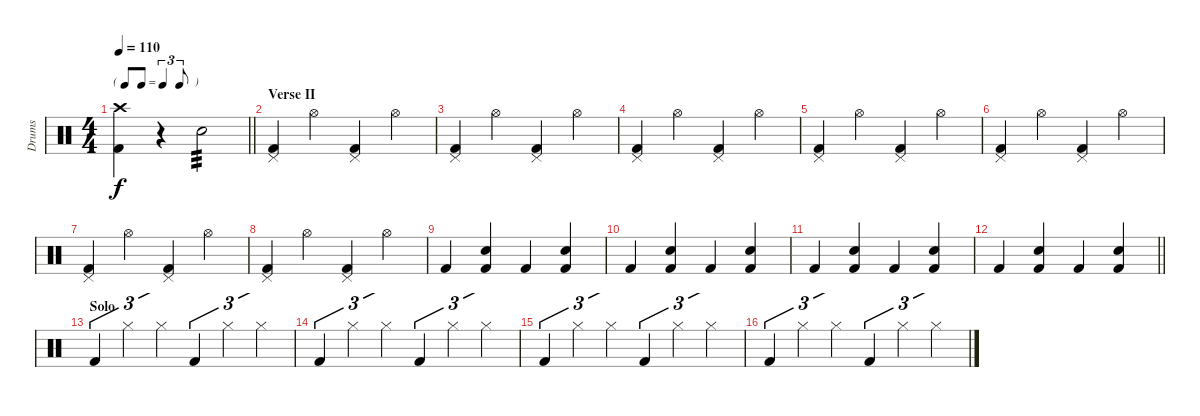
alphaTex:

\track ("Drums" "Drums") {instrument percussion}
\staff {score}
\articulation defaults
\ts (4 4)
\tf triplet8th
\tempo 110
\clef neutral
\barLineRight lightlight
\ks c
("Crash high (hit)" "Kick (hit) 2").4{dy f} r.4 "Snare (hit) 2".2{tp 3} |
\section ("" "Verse II")
("Pedal Hi-Hat (hit)" "Kick (hit) 2").4 "Hi-Hat (open)".4 ("Pedal Hi-Hat (hit)" "Kick (hit) 2").4 "Hi-Hat (open)".4 |
("Pedal Hi-Hat (hit)" "Kick (hit) 2").4 "Hi-Hat (open)".4 ("Pedal Hi-Hat (hit)" "Kick (hit) 2").4 "Hi-Hat (open)".4 |
("Pedal Hi-Hat (hit)" "Kick (hit) 2").4 "Hi-Hat (open)".4 ("Pedal Hi-Hat (hit)" "Kick (hit) 2").4 "Hi-Hat (open)".4 |
("Pedal Hi-Hat (hit)" "Kick (hit) 2").4 "Hi-Hat (open)".4 ("Pedal Hi-Hat (hit)" "Kick (hit) 2").4 "Hi-Hat (open)".4 |
("Pedal Hi-Hat (hit)" "Kick (hit) 2").4 "Hi-Hat (open)".4 ("Pedal Hi-Hat (hit)" "Kick (hit) 2").4 "Hi-Hat (open)".4 |
("Pedal Hi-Hat (hit)" "Kick (hit) 2").4 "Hi-Hat (open)".4 ("Pedal Hi-Hat (hit)" "Kick (hit) 2").4 "Hi-Hat (open)".4 |
("Pedal Hi-Hat (hit)" "Kick (hit) 2").4 "Hi-Hat (open)".4 ("Pedal Hi-Hat (hit)" "Kick (hit) 2").4 "Hi-Hat (open)".4 |
"Kick (hit) 2".4 ("Snare (hit) 2" "Kick (hit) 2").4 "Kick (hit) 2".4 ("Snare (hit) 2" "Kick (hit) 2").4 |
"Kick (hit) 2".4 ("Snare (hit) 2" "Kick (hit) 2").4 "Kick (hit) 2".4 ("Snare (hit) 2" "Kick (hit) 2").4 |
"Kick (hit) 2".4 ("Snare (hit) 2" "Kick (hit) 2").4 "Kick (hit) 2".4 ("Snare (hit) 2" "Kick (hit) 2").4 |
\barLineRight lightlight "Kick (hit) 2".4
("Snare (hit) 2" "Kick (hit) 2").4 "Kick (hit) 2".4 ("Snare (hit) 2" "Kick (hit) 2").4 |
\section ("" "Solo")
"Kick (hit) 2".4{tu (3 2)} "Hi-Hat (closed)".4{tu (3 2)} "Hi-Hat (closed)".4{tu (3 2)} "Kick (hit) 2".4{tu (3 2)} "Hi-Hat (closed)".4{tu (3 2)} "Hi-Hat (closed)".4{tu (3 2)} |
"Kick (hit) 2".4{tu (3 2)} "Hi-Hat (closed)".4{tu (3 2)} "Hi-Hat (closed)".4{tu (3 2)} "Kick (hit) 2".4{tu (3 2)} "Hi-Hat (closed)".4{tu (3 2)} "Hi-Hat (closed)".4{tu (3 2)} |
"Kick (hit) 2".4{tu (3 2)} "Hi-Hat (closed)".4{tu (3 2)} "Hi-Hat (closed)".4{tu (3 2)} "Kick (hit) 2".4{tu (3 2)} "Hi-Hat (closed)".4{tu (3 2)} "Hi-Hat (closed)".4{tu (3 2)} |
"Kick (hit) 2".4{tu (3 2)} "Hi-Hat (closed)".4{tu (3 2)} "Hi-Hat (closed)".4{tu (3 2)} "Kick (hit) 2".4{tu (3 2)} "Hi-Hat (closed)".4{tu (3 2)} "Hi-Hat (closed)".4{tu (3 2)}
